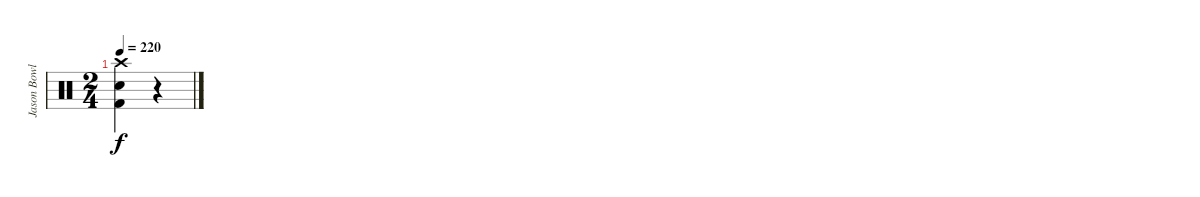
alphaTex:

\track ("Jason Bowld" "Jason Bowl") {instrument percussion}
\staff {score}
\articulation defaults
\ts (2 4)
\tempo 220
\clef neutral
\ks c
("Kick (hit) 2" "Snare (hit) 2" "Crash high (hit)").4{dy f} r.4
